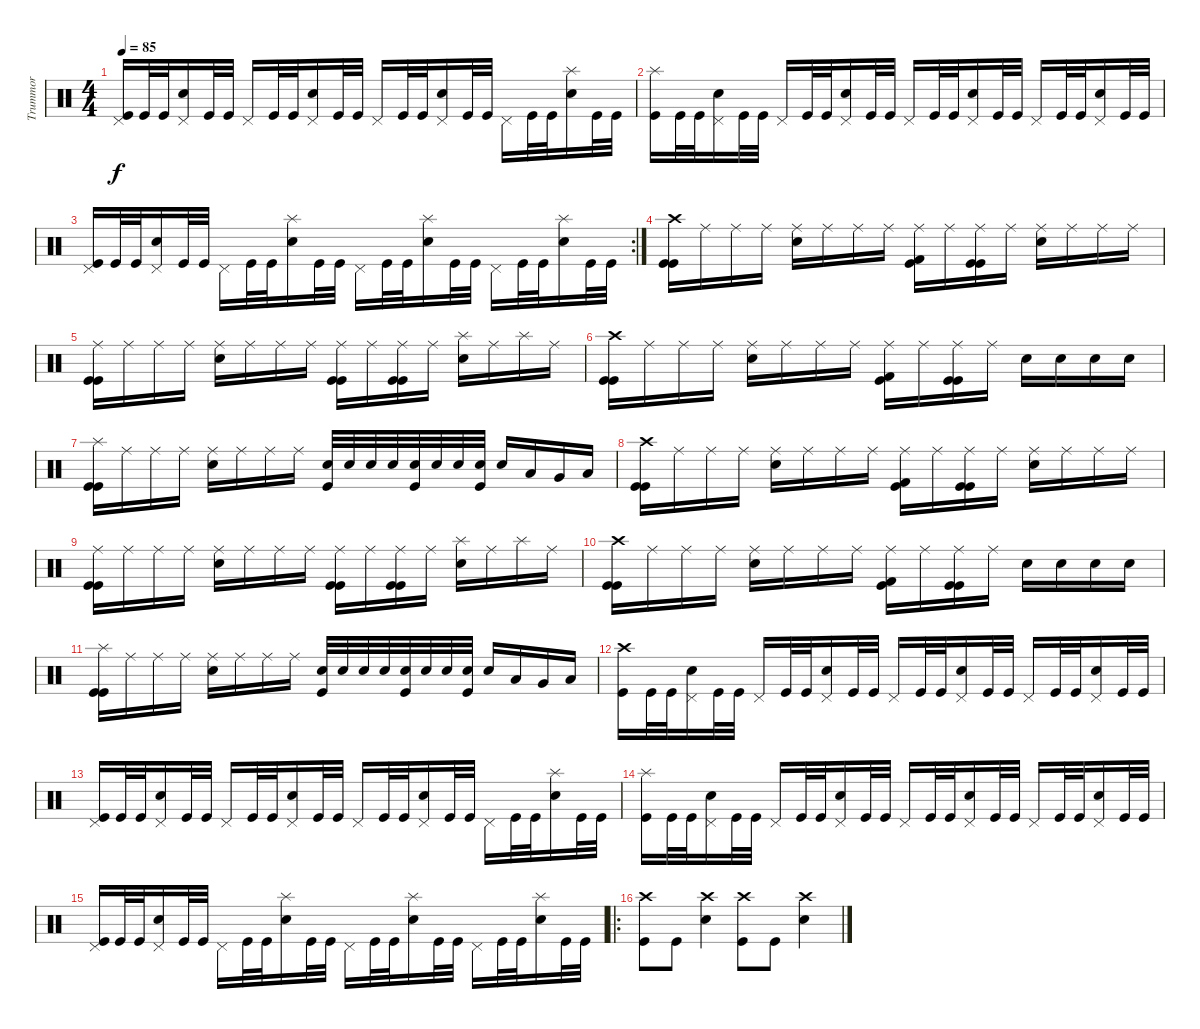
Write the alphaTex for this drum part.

\track ("Trummor" "Trummor") {instrument percussion}
\staff {score}
\articulation defaults
\ts (4 4)
\tempo 85
\clef neutral
\ks c
("Pedal Hi-Hat (hit)" "Kick (hit)").16{dy f} "Kick (hit)".32 "Kick (hit)".32 ("Pedal Hi-Hat (hit)" "Snare (hit) 2").16 "Kick (hit)".32 "Kick (hit)".32 "Pedal Hi-Hat (hit)".16 "Kick (hit)".32 "Kick (hit)".32 ("Pedal Hi-Hat (hit)" "Snare (hit) 2").16 "Kick (hit)".32 "Kick (hit)".32 "Pedal Hi-Hat (hit)".16 "Kick (hit)".32 "Kick (hit)".32 ("Pedal Hi-Hat (hit)" "Snare (hit) 2").16 "Kick (hit)".32 "Kick (hit)".32 "Pedal Hi-Hat (hit)".16 "Kick (hit)".32 "Kick (hit)".32 ("Splash (hit)" "Snare (hit) 2").16 "Kick (hit)".32 "Kick (hit)".32 |
("Splash (hit)" "Kick (hit)").16 "Kick (hit)".32 "Kick (hit)".32 ("Pedal Hi-Hat (hit)" "Snare (hit) 2").16 "Kick (hit)".32 "Kick (hit)".32 "Pedal Hi-Hat (hit)".16 "Kick (hit)".32 "Kick (hit)".32 ("Pedal Hi-Hat (hit)" "Snare (hit) 2").16 "Kick (hit)".32 "Kick (hit)".32 "Pedal Hi-Hat (hit)".16 "Kick (hit)".32 "Kick (hit)".32 ("Pedal Hi-Hat (hit)" "Snare (hit) 2").16 "Kick (hit)".32 "Kick (hit)".32 "Pedal Hi-Hat (hit)".16 "Kick (hit)".32 "Kick (hit)".32 ("Pedal Hi-Hat (hit)" "Snare (hit) 2").16 "Kick (hit)".32 "Kick (hit)".32 |
\rc 2
("Pedal Hi-Hat (hit)" "Kick (hit)").16 "Kick (hit)".32 "Kick (hit)".32 ("Pedal Hi-Hat (hit)" "Snare (hit) 2").16 "Kick (hit)".32 "Kick (hit)".32 "Pedal Hi-Hat (hit)".16 "Kick (hit)".32 "Kick (hit)".32 ("Splash (hit)" "Snare (hit) 2").16 "Kick (hit)".32 "Kick (hit)".32 "Pedal Hi-Hat (hit)".16 "Kick (hit)".32 "Kick (hit)".32 ("Splash (hit)" "Snare (hit) 2").16 "Kick (hit)".32 "Kick (hit)".32 "Pedal Hi-Hat (hit)".16 "Kick (hit)".32 "Kick (hit)".32 ("Splash (hit)" "Snare (hit) 2").16 "Kick (hit)".32 "Kick (hit)".32 |
("Crash high (hit)" "Kick (hit)" "Kick (hit)").16 "Ride (middle)".16 "Ride (middle)".16 "Ride (middle)".16 ("Ride (middle)" "Snare (hit) 2").16 "Ride (middle)".16 "Ride (middle)".16 "Ride (middle)".16 ("Ride (middle)" "Kick (hit) 2" "Kick (hit)").16 "Ride (middle)".16 ("Ride (middle)" "Kick (hit)" "Kick (hit)").16 "Ride (middle)".16 ("Ride (middle)" "Snare (hit) 2").16 "Ride (middle)".16 "Ride (middle)".16 "Ride (middle)".16 |
("Ride (middle)" "Kick (hit)" "Kick (hit)").16 "Ride (middle)".16 "Ride (middle)".16 "Ride (middle)".16 ("Ride (middle)" "Snare (hit) 2").16 "Ride (middle)".16 "Ride (middle)".16 "Ride (middle)".16 ("Ride (middle)" "Kick (hit)" "Kick (hit)").16 "Ride (middle)".16 ("Ride (middle)" "Kick (hit)" "Kick (hit)").16 "Ride (middle)".16 ("Splash (hit)" "Snare (hit) 2").16 "Ride (middle)".16 "Splash (hit)".16 "Ride (middle)".16 |
("Crash high (hit)" "Kick (hit)" "Kick (hit)").16 "Ride (middle)".16 "Ride (middle)".16 "Ride (middle)".16 ("Ride (middle)" "Snare (hit) 2").16 "Ride (middle)".16 "Ride (middle)".16 "Ride (middle)".16 ("Ride (middle)" "Kick (hit) 2" "Kick (hit)").16 "Ride (middle)".16 ("Ride (middle)" "Kick (hit)" "Kick (hit)").16 "Ride (middle)".16 "Snare (hit) 2".16 "Snare (hit) 2".16 "Snare (hit) 2".16 "Snare (hit) 2".16 |
("Splash (hit)" "Kick (hit)" "Kick (hit)").16 "Ride (middle)".16 "Ride (middle)".16 "Ride (middle)".16 ("Ride (middle)" "Snare (hit) 2").16 "Ride (middle)".16 "Ride (middle)".16 "Ride (middle)".16 ("Snare (hit) 2" "Kick (hit)").32 "Snare (hit) 2".32 "Snare (hit) 2".32 "Snare (hit) 2".32 ("Snare (hit) 2" "Kick (hit)").32 "Snare (hit) 2".32 "Snare (hit) 2".32 ("Snare (hit) 2" "Kick (hit)").32 "Snare (hit) 2".16 "Low Floor Tom (hit)".16 "Very Low Tom (hit)".16 "Low Tom (hit)".16 |
("Crash high (hit)" "Kick (hit)" "Kick (hit)").16 "Ride (middle)".16 "Ride (middle)".16 "Ride (middle)".16 ("Ride (middle)" "Snare (hit) 2").16 "Ride (middle)".16 "Ride (middle)".16 "Ride (middle)".16 ("Ride (middle)" "Kick (hit) 2" "Kick (hit)").16 "Ride (middle)".16 ("Ride (middle)" "Kick (hit)" "Kick (hit)").16 "Ride (middle)".16 ("Ride (middle)" "Snare (hit) 2").16 "Ride (middle)".16 "Ride (middle)".16 "Ride (middle)".16 |
("Ride (middle)" "Kick (hit)" "Kick (hit)").16 "Ride (middle)".16 "Ride (middle)".16 "Ride (middle)".16 ("Ride (middle)" "Snare (hit) 2").16 "Ride (middle)".16 "Ride (middle)".16 "Ride (middle)".16 ("Ride (middle)" "Kick (hit)" "Kick (hit)").16 "Ride (middle)".16 ("Ride (middle)" "Kick (hit)" "Kick (hit)").16 "Ride (middle)".16 ("Splash (hit)" "Snare (hit) 2").16 "Ride (middle)".16 "Splash (hit)".16 "Ride (middle)".16 |
("Crash high (hit)" "Kick (hit)" "Kick (hit)").16 "Ride (middle)".16 "Ride (middle)".16 "Ride (middle)".16 ("Ride (middle)" "Snare (hit) 2").16 "Ride (middle)".16 "Ride (middle)".16 "Ride (middle)".16 ("Ride (middle)" "Kick (hit) 2" "Kick (hit)").16 "Ride (middle)".16 ("Ride (middle)" "Kick (hit)" "Kick (hit)").16 "Ride (middle)".16 "Snare (hit) 2".16 "Snare (hit) 2".16 "Snare (hit) 2".16 "Snare (hit) 2".16 |
("Splash (hit)" "Kick (hit)" "Kick (hit)").16 "Ride (middle)".16 "Ride (middle)".16 "Ride (middle)".16 ("Ride (middle)" "Snare (hit) 2").16 "Ride (middle)".16 "Ride (middle)".16 "Ride (middle)".16 ("Snare (hit) 2" "Kick (hit)").32 "Snare (hit) 2".32 "Snare (hit) 2".32 "Snare (hit) 2".32 ("Snare (hit) 2" "Kick (hit)").32 "Snare (hit) 2".32 "Snare (hit) 2".32 ("Snare (hit) 2" "Kick (hit)").32 "Snare (hit) 2".16 "Low Floor Tom (hit)".16 "Very Low Tom (hit)".16 "Low Tom (hit)".16 |
("Crash high (hit)" "Kick (hit)").16 "Kick (hit)".32 "Kick (hit)".32 ("Pedal Hi-Hat (hit)" "Snare (hit) 2").16 "Kick (hit)".32 "Kick (hit)".32 "Pedal Hi-Hat (hit)".16 "Kick (hit)".32 "Kick (hit)".32 ("Pedal Hi-Hat (hit)" "Snare (hit) 2").16 "Kick (hit)".32 "Kick (hit)".32 "Pedal Hi-Hat (hit)".16 "Kick (hit)".32 "Kick (hit)".32 ("Pedal Hi-Hat (hit)" "Snare (hit) 2").16 "Kick (hit)".32 "Kick (hit)".32 "Pedal Hi-Hat (hit)".16 "Kick (hit)".32 "Kick (hit)".32 ("Pedal Hi-Hat (hit)" "Snare (hit) 2").16 "Kick (hit)".32 "Kick (hit)".32 |
("Pedal Hi-Hat (hit)" "Kick (hit)").16 "Kick (hit)".32 "Kick (hit)".32 ("Pedal Hi-Hat (hit)" "Snare (hit) 2").16 "Kick (hit)".32 "Kick (hit)".32 "Pedal Hi-Hat (hit)".16 "Kick (hit)".32 "Kick (hit)".32 ("Pedal Hi-Hat (hit)" "Snare (hit) 2").16 "Kick (hit)".32 "Kick (hit)".32 "Pedal Hi-Hat (hit)".16 "Kick (hit)".32 "Kick (hit)".32 ("Pedal Hi-Hat (hit)" "Snare (hit) 2").16 "Kick (hit)".32 "Kick (hit)".32 "Pedal Hi-Hat (hit)".16 "Kick (hit)".32 "Kick (hit)".32 ("Splash (hit)" "Snare (hit) 2").16 "Kick (hit)".32 "Kick (hit)".32 |
("Splash (hit)" "Kick (hit)").16 "Kick (hit)".32 "Kick (hit)".32 ("Pedal Hi-Hat (hit)" "Snare (hit) 2").16 "Kick (hit)".32 "Kick (hit)".32 "Pedal Hi-Hat (hit)".16 "Kick (hit)".32 "Kick (hit)".32 ("Pedal Hi-Hat (hit)" "Snare (hit) 2").16 "Kick (hit)".32 "Kick (hit)".32 "Pedal Hi-Hat (hit)".16 "Kick (hit)".32 "Kick (hit)".32 ("Pedal Hi-Hat (hit)" "Snare (hit) 2").16 "Kick (hit)".32 "Kick (hit)".32 "Pedal Hi-Hat (hit)".16 "Kick (hit)".32 "Kick (hit)".32 ("Pedal Hi-Hat (hit)" "Snare (hit) 2").16 "Kick (hit)".32 "Kick (hit)".32 |
("Pedal Hi-Hat (hit)" "Kick (hit)").16 "Kick (hit)".32 "Kick (hit)".32 ("Pedal Hi-Hat (hit)" "Snare (hit) 2").16 "Kick (hit)".32 "Kick (hit)".32 "Pedal Hi-Hat (hit)".16 "Kick (hit)".32 "Kick (hit)".32 ("Splash (hit)" "Snare (hit) 2").16 "Kick (hit)".32 "Kick (hit)".32 "Pedal Hi-Hat (hit)".16 "Kick (hit)".32 "Kick (hit)".32 ("Splash (hit)" "Snare (hit) 2").16 "Kick (hit)".32 "Kick (hit)".32 "Pedal Hi-Hat (hit)".16 "Kick (hit)".32 "Kick (hit)".32 ("Splash (hit)" "Snare (hit) 2").16 "Kick (hit)".32 "Kick (hit)".32 |
\ro
("Crash high (hit)" "Kick (hit)").8 "Kick (hit)".8 ("Crash high (hit)" "Snare (hit) 2").4 ("Crash high (hit)" "Kick (hit)").8 "Kick (hit)".8 ("Crash high (hit)" "Snare (hit) 2").4
